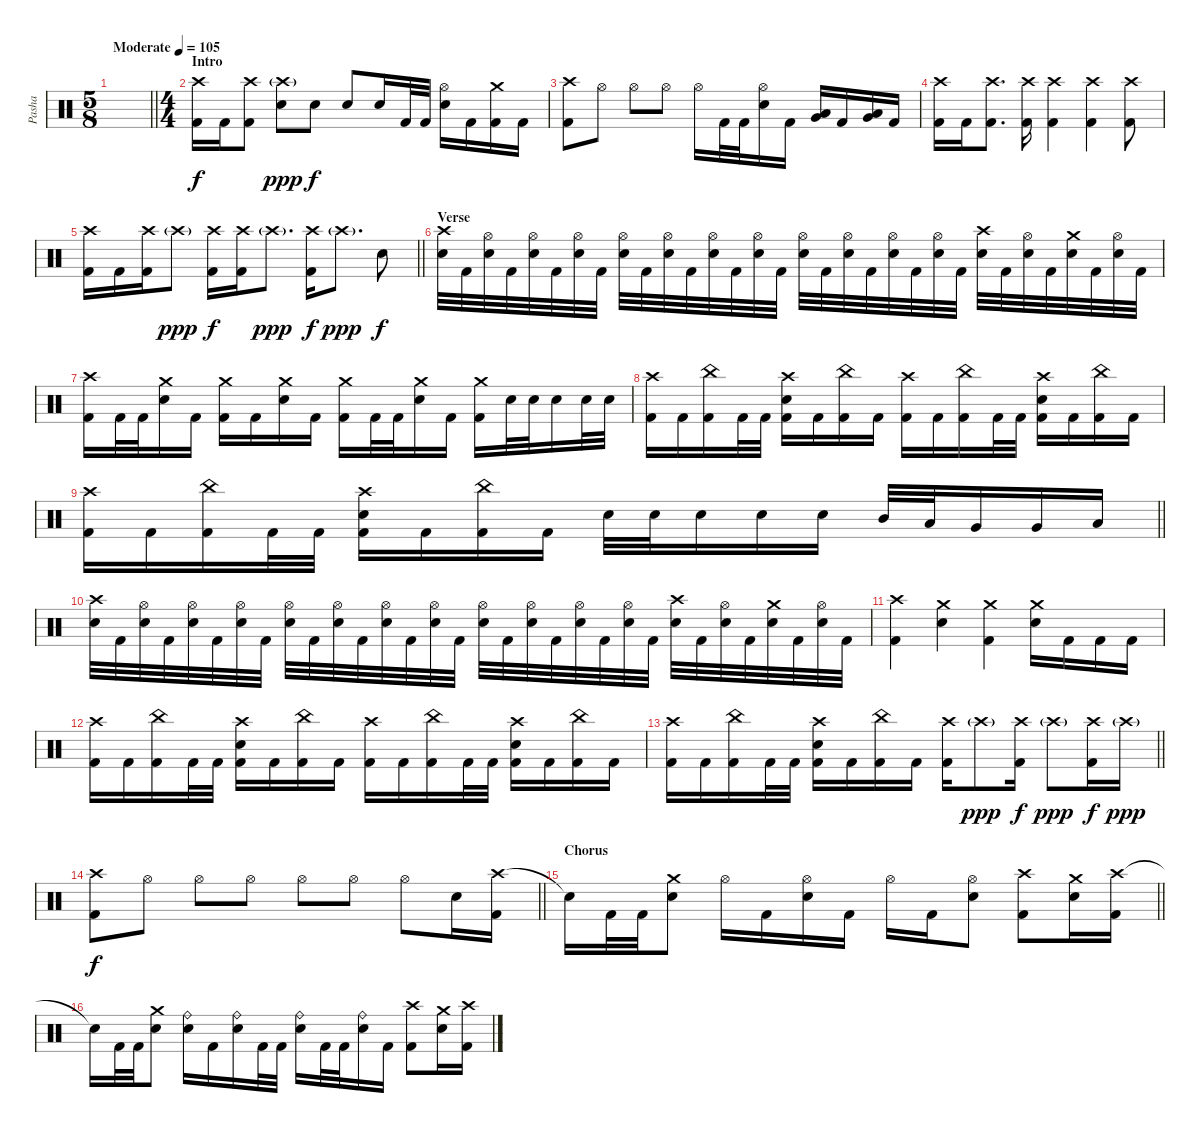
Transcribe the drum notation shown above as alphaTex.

\track ("Pasha" "Pasha") {instrument percussion}
\staff {score}
\articulation defaults
\ts (5 8)
\tempo (105 "Moderate")
\clef neutral
\barLineRight lightlight
\ks c
|
\ts (4 4)
\section ("" "Intro")
("Crash high (hit)" "Kick (hit) 2").16 "Kick (hit) 2".16 ("Crash high (hit)" "Kick (hit) 2").8 ("Crash high (hit)"{g} "Electric Snare (hit)").8{dy ppp} "Electric Snare (hit)".8{dy f} "Electric Snare (hit)".8 "Electric Snare (hit)".16 "Kick (hit) 2".32 "Kick (hit) 2".32 ("Hi-Hat (open)" "Electric Snare (hit)").16 "Kick (hit) 2".16 ("Crash medium (hit)" "Kick (hit) 2").16 "Kick (hit) 2".16 |
("Crash high (hit)" "Kick (hit) 2").8 "Hi-Hat (open)".8 "Hi-Hat (open)".8 "Hi-Hat (open)".8 "Hi-Hat (open)".16 "Kick (hit) 2".32 "Kick (hit) 2".32 ("Hi-Hat (open)" "Electric Snare (hit)").16 "Kick (hit) 2".16 ("Very Low Tom (hit)" "Low Tom (hit)").16 "Kick (hit) 2".16 ("Low Floor Tom (hit)" "Very Low Tom (hit)").16 "Kick (hit) 2".16 |
("Crash high (hit)" "Kick (hit) 2").16 "Kick (hit) 2".16 ("Crash high (hit)" "Kick (hit) 2").8{d} ("Crash high (hit)" "Kick (hit) 2").16 ("Crash high (hit)" "Kick (hit) 2").4 ("Crash high (hit)" "Kick (hit) 2").4 ("Crash high (hit)" "Kick (hit) 2").8 |
\barLineRight lightlight
("Crash high (hit)" "Kick (hit) 2").16 "Kick (hit) 2".16 ("Crash high (hit)" "Kick (hit) 2").16 "Crash high (hit)"{g}.8{dy ppp} ("Crash high (hit)" "Kick (hit) 2").16{dy f} ("Crash high (hit)" "Kick (hit) 2").16 "Crash high (hit)"{g}.8{d dy ppp} ("Crash high (hit)" "Kick (hit) 2").16{dy f} "Crash high (hit)"{g}.8{d dy ppp} "Electric Snare (hit)".8{dy f} |
\section ("" "Verse")
("Crash high (hit)" "Electric Snare (hit)").32 "Kick (hit) 2".32 ("Hi-Hat (open)" "Electric Snare (hit)").32 "Kick (hit) 2".32 ("Hi-Hat (open)" "Electric Snare (hit)").32 "Kick (hit) 2".32 ("Hi-Hat (open)" "Electric Snare (hit)").32 "Kick (hit) 2".32 ("Hi-Hat (open)" "Electric Snare (hit)").32 "Kick (hit) 2".32 ("Hi-Hat (open)" "Electric Snare (hit)").32 "Kick (hit) 2".32 ("Hi-Hat (open)" "Electric Snare (hit)").32 "Kick (hit) 2".32 ("Hi-Hat (open)" "Electric Snare (hit)").32 "Kick (hit) 2".32 ("Hi-Hat (open)" "Electric Snare (hit)").32 "Kick (hit) 2".32 ("Hi-Hat (open)" "Electric Snare (hit)").32 "Kick (hit) 2".32 ("Hi-Hat (open)" "Electric Snare (hit)").32 "Kick (hit) 2".32 ("Hi-Hat (open)" "Electric Snare (hit)").32 "Kick (hit) 2".32 ("Crash high (hit)" "Electric Snare (hit)").32 "Kick (hit) 2".32 ("Hi-Hat (open)" "Electric Snare (hit)").32 "Kick (hit) 2".32 ("Crash medium (hit)" "Electric Snare (hit)").32 "Kick (hit) 2".32 ("Hi-Hat (open)" "Electric Snare (hit)").32 "Kick (hit) 2".32 |
("Crash high (hit)" "Kick (hit) 2").16 "Kick (hit) 2".32 "Kick (hit) 2".32 ("Crash medium (hit)" "Electric Snare (hit)").16 "Kick (hit) 2".16 ("Crash medium (hit)" "Kick (hit) 2").16 "Kick (hit) 2".16 ("Crash medium (hit)" "Electric Snare (hit)").16 "Kick (hit) 2".16 ("Crash medium (hit)" "Kick (hit) 2").16 "Kick (hit) 2".32 "Kick (hit) 2".32 ("Crash medium (hit)" "Electric Snare (hit)").16 "Kick (hit) 2".16 ("Crash medium (hit)" "Kick (hit) 2").16 "Electric Snare (hit)".32 "Electric Snare (hit)".32 "Electric Snare (hit)".16 "Electric Snare (hit)".32 "Electric Snare (hit)".32 |
("Crash high (hit)" "Kick (hit) 2").16 "Kick (hit) 2".16 ("China (hit)" "Kick (hit) 2").16 "Kick (hit) 2".32 "Kick (hit) 2".32 ("Crash high (hit)" "Electric Snare (hit)" "Kick (hit) 2").16 "Kick (hit) 2".16 ("China (hit)" "Kick (hit) 2").16 "Kick (hit) 2".16 ("Crash high (hit)" "Kick (hit) 2").16 "Kick (hit) 2".16 ("China (hit)" "Kick (hit) 2").16 "Kick (hit) 2".32 "Kick (hit) 2".32 ("Crash high (hit)" "Electric Snare (hit)" "Kick (hit) 2").16 "Kick (hit) 2".16 ("China (hit)" "Kick (hit) 2").16 "Kick (hit) 2".16 |
\barLineRight lightlight
("Crash high (hit)" "Kick (hit) 2").16 "Kick (hit) 2".16 ("China (hit)" "Kick (hit) 2").16 "Kick (hit) 2".32 "Kick (hit) 2".32 ("Crash high (hit)" "Electric Snare (hit)" "Kick (hit) 2").16 "Kick (hit) 2".16 ("China (hit)" "Kick (hit) 2").16 "Kick (hit) 2".16 "Electric Snare (hit)".32 "Electric Snare (hit)".32 "Electric Snare (hit)".16 "Electric Snare (hit)".16 "Electric Snare (hit)".16 "Mid Tom (hit)".32 "Low Tom (hit)".32 "Very Low Tom (hit)".16 "Very Low Tom (hit)".16 "Low Floor Tom (hit)".16 |
\section ("" "")
("Crash high (hit)" "Electric Snare (hit)").32 "Kick (hit) 2".32 ("Hi-Hat (open)" "Electric Snare (hit)").32 "Kick (hit) 2".32 ("Hi-Hat (open)" "Electric Snare (hit)").32 "Kick (hit) 2".32 ("Hi-Hat (open)" "Electric Snare (hit)").32 "Kick (hit) 2".32 ("Hi-Hat (open)" "Electric Snare (hit)").32 "Kick (hit) 2".32 ("Hi-Hat (open)" "Electric Snare (hit)").32 "Kick (hit) 2".32 ("Hi-Hat (open)" "Electric Snare (hit)").32 "Kick (hit) 2".32 ("Hi-Hat (open)" "Electric Snare (hit)").32 "Kick (hit) 2".32 ("Hi-Hat (open)" "Electric Snare (hit)").32 "Kick (hit) 2".32 ("Hi-Hat (open)" "Electric Snare (hit)").32 "Kick (hit) 2".32 ("Hi-Hat (open)" "Electric Snare (hit)").32 "Kick (hit) 2".32 ("Hi-Hat (open)" "Electric Snare (hit)").32 "Kick (hit) 2".32 ("Crash high (hit)" "Electric Snare (hit)").32 "Kick (hit) 2".32 ("Hi-Hat (open)" "Electric Snare (hit)").32 "Kick (hit) 2".32 ("Crash medium (hit)" "Electric Snare (hit)").32 "Kick (hit) 2".32 ("Hi-Hat (open)" "Electric Snare (hit)").32 "Kick (hit) 2".32 |
("Crash high (hit)" "Kick (hit) 2").4 ("Crash medium (hit)" "Electric Snare (hit)").4 ("Crash medium (hit)" "Kick (hit) 2").4 ("Crash medium (hit)" "Electric Snare (hit)").16 "Kick (hit) 2".16 "Kick (hit) 2".16 "Kick (hit) 2".16 |
("Crash high (hit)" "Kick (hit) 2").16 "Kick (hit) 2".16 ("China (hit)" "Kick (hit) 2").16 "Kick (hit) 2".32 "Kick (hit) 2".32 ("Crash high (hit)" "Electric Snare (hit)" "Kick (hit) 2").16 "Kick (hit) 2".16 ("China (hit)" "Kick (hit) 2").16 "Kick (hit) 2".16 ("Crash high (hit)" "Kick (hit) 2").16 "Kick (hit) 2".16 ("China (hit)" "Kick (hit) 2").16 "Kick (hit) 2".32 "Kick (hit) 2".32 ("Crash high (hit)" "Electric Snare (hit)" "Kick (hit) 2").16 "Kick (hit) 2".16 ("China (hit)" "Kick (hit) 2").16 "Kick (hit) 2".16 |
\barLineRight lightlight
("Crash high (hit)" "Kick (hit) 2").16 "Kick (hit) 2".16 ("China (hit)" "Kick (hit) 2").16 "Kick (hit) 2".32 "Kick (hit) 2".32 ("Crash high (hit)" "Electric Snare (hit)" "Kick (hit) 2").16 "Kick (hit) 2".16 ("China (hit)" "Kick (hit) 2").16 "Kick (hit) 2".16 ("Crash high (hit)" "Kick (hit) 2").16 "Crash high (hit)"{g}.8{dy ppp} ("Crash high (hit)" "Kick (hit) 2").16{dy f} "Crash high (hit)"{g}.8{dy ppp} ("Crash high (hit)" "Kick (hit) 2").16{dy f} "Crash high (hit)"{g}.16{dy ppp} |
\section ("" "")
\barLineRight lightlight
("Crash high (hit)" "Kick (hit) 2").8{dy f} "Hi-Hat (open)".8 "Hi-Hat (open)".8 "Hi-Hat (open)".8 "Hi-Hat (open)".8 "Hi-Hat (open)".8 "Hi-Hat (open)".8 "Electric Snare (hit)".16 ("Crash high (hit)" "Kick (hit) 2").16 |
\section ("" "Chorus")
\barLineRight lightlight "Snare (hit)"{t}.16 "Kick (hit) 2".32 "Kick (hit) 2".32
("Crash medium (hit)" "Electric Snare (hit)").8 "Hi-Hat (open)".16 "Kick (hit) 2".16 ("Hi-Hat (open)" "Electric Snare (hit)").16 "Kick (hit) 2".16 "Hi-Hat (open)".16 "Kick (hit) 2".16 ("Hi-Hat (open)" "Electric Snare (hit)").8 ("Crash high (hit)" "Kick (hit) 2").8 ("Crash medium (hit)" "Electric Snare (hit)").16 ("Crash high (hit)" "Kick (hit) 2").16 |
"Snare (hit)"{t}.16 "Kick (hit) 2".32 "Kick (hit) 2".32 ("Crash medium (hit)" "Electric Snare (hit)").8 ("Ride (bell)" "Electric Snare (hit)").16 "Kick (hit) 2".16 ("Ride (bell)" "Electric Snare (hit)").16 "Kick (hit) 2".32 "Kick (hit) 2".32 ("Ride (bell)" "Electric Snare (hit)").16 "Kick (hit) 2".32 "Kick (hit) 2".32 ("Ride (bell)" "Electric Snare (hit)").16 "Kick (hit) 2".16 ("Crash high (hit)" "Kick (hit) 2").8 ("Crash medium (hit)" "Electric Snare (hit)").16 ("Crash high (hit)" "Kick (hit) 2").16
